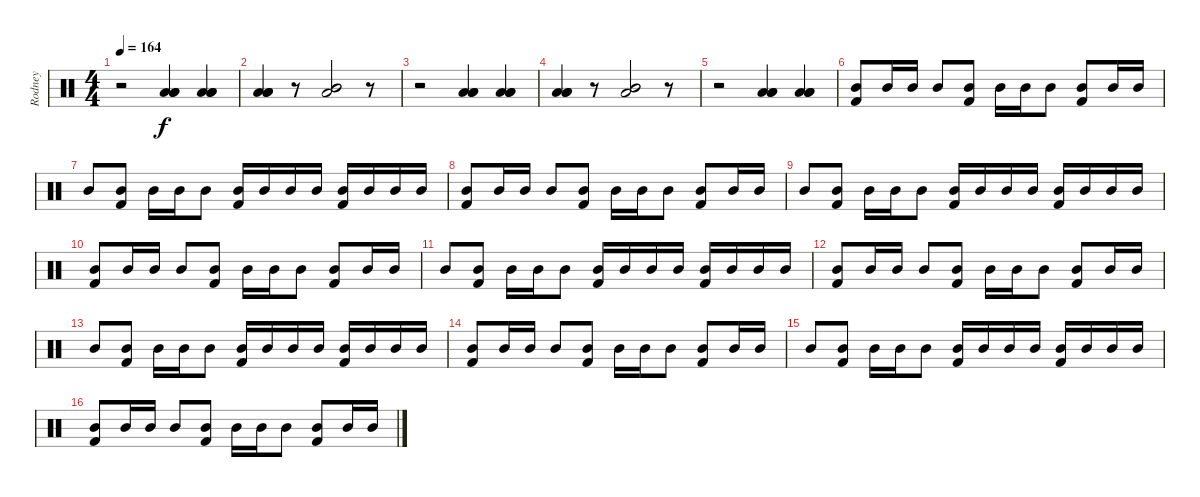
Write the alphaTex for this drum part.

\track ("Rodney" "Rodney") {instrument percussion}
\staff {score}
\articulation defaults
\ts (4 4)
\tempo 164
\clef neutral
\ks c
r.2{dy f} ("Low Tom (hit)" "Low Floor Tom (hit)" "Low Tom (hit)").4 ("Low Tom (hit)" "Low Floor Tom (hit)" "Low Tom (hit)").4 |
("Low Tom (hit)" "Low Floor Tom (hit)" "Low Tom (hit)").4 r.8 ("Mid Tom (hit)" "Low Tom (hit)" "Mid Tom (hit)").2 r.8 |
r.2 ("Low Tom (hit)" "Low Floor Tom (hit)" "Low Tom (hit)").4 ("Low Tom (hit)" "Low Floor Tom (hit)" "Low Tom (hit)").4 |
("Low Tom (hit)" "Low Floor Tom (hit)" "Low Tom (hit)").4 r.8 ("Mid Tom (hit)" "Low Tom (hit)" "Mid Tom (hit)").2 r.8 |
r.2 ("Low Tom (hit)" "Low Floor Tom (hit)" "Low Tom (hit)").4 ("Low Tom (hit)" "Low Floor Tom (hit)" "Low Tom (hit)").4 |
("Mid Tom (hit)" "Kick (hit) 2").8 "Mid Tom (hit)".16 "Mid Tom (hit)".16 "Mid Tom (hit)".8 ("Mid Tom (hit)" "Kick (hit) 2").8 "Mid Tom (hit)".16 "Mid Tom (hit)".16 "Mid Tom (hit)".8 ("Mid Tom (hit)" "Kick (hit) 2").8 "Mid Tom (hit)".16 "Mid Tom (hit)".16 |
"Mid Tom (hit)".8 ("Mid Tom (hit)" "Kick (hit) 2").8 "Mid Tom (hit)".16 "Mid Tom (hit)".16 "Mid Tom (hit)".8 ("Mid Tom (hit)" "Kick (hit) 2").16 "Mid Tom (hit)".16 "Mid Tom (hit)".16 "Mid Tom (hit)".16 ("Mid Tom (hit)" "Kick (hit) 2").16 "Mid Tom (hit)".16 "Mid Tom (hit)".16 "Mid Tom (hit)".16 |
("Mid Tom (hit)" "Kick (hit) 2").8 "Mid Tom (hit)".16 "Mid Tom (hit)".16 "Mid Tom (hit)".8 ("Mid Tom (hit)" "Kick (hit) 2").8 "Mid Tom (hit)".16 "Mid Tom (hit)".16 "Mid Tom (hit)".8 ("Mid Tom (hit)" "Kick (hit) 2").8 "Mid Tom (hit)".16 "Mid Tom (hit)".16 |
"Mid Tom (hit)".8 ("Mid Tom (hit)" "Kick (hit) 2").8 "Mid Tom (hit)".16 "Mid Tom (hit)".16 "Mid Tom (hit)".8 ("Mid Tom (hit)" "Kick (hit) 2").16 "Mid Tom (hit)".16 "Mid Tom (hit)".16 "Mid Tom (hit)".16 ("Mid Tom (hit)" "Kick (hit) 2").16 "Mid Tom (hit)".16 "Mid Tom (hit)".16 "Mid Tom (hit)".16 |
("Mid Tom (hit)" "Kick (hit) 2").8 "Mid Tom (hit)".16 "Mid Tom (hit)".16 "Mid Tom (hit)".8 ("Mid Tom (hit)" "Kick (hit) 2").8 "Mid Tom (hit)".16 "Mid Tom (hit)".16 "Mid Tom (hit)".8 ("Mid Tom (hit)" "Kick (hit) 2").8 "Mid Tom (hit)".16 "Mid Tom (hit)".16 |
"Mid Tom (hit)".8 ("Mid Tom (hit)" "Kick (hit) 2").8 "Mid Tom (hit)".16 "Mid Tom (hit)".16 "Mid Tom (hit)".8 ("Mid Tom (hit)" "Kick (hit) 2").16 "Mid Tom (hit)".16 "Mid Tom (hit)".16 "Mid Tom (hit)".16 ("Mid Tom (hit)" "Kick (hit) 2").16 "Mid Tom (hit)".16 "Mid Tom (hit)".16 "Mid Tom (hit)".16 |
("Mid Tom (hit)" "Kick (hit) 2").8 "Mid Tom (hit)".16 "Mid Tom (hit)".16 "Mid Tom (hit)".8 ("Mid Tom (hit)" "Kick (hit) 2").8 "Mid Tom (hit)".16 "Mid Tom (hit)".16 "Mid Tom (hit)".8 ("Mid Tom (hit)" "Kick (hit) 2").8 "Mid Tom (hit)".16 "Mid Tom (hit)".16 |
"Mid Tom (hit)".8 ("Mid Tom (hit)" "Kick (hit) 2").8 "Mid Tom (hit)".16 "Mid Tom (hit)".16 "Mid Tom (hit)".8 ("Mid Tom (hit)" "Kick (hit) 2").16 "Mid Tom (hit)".16 "Mid Tom (hit)".16 "Mid Tom (hit)".16 ("Mid Tom (hit)" "Kick (hit) 2").16 "Mid Tom (hit)".16 "Mid Tom (hit)".16 "Mid Tom (hit)".16 |
("Mid Tom (hit)" "Kick (hit) 2").8 "Mid Tom (hit)".16 "Mid Tom (hit)".16 "Mid Tom (hit)".8 ("Mid Tom (hit)" "Kick (hit) 2").8 "Mid Tom (hit)".16 "Mid Tom (hit)".16 "Mid Tom (hit)".8 ("Mid Tom (hit)" "Kick (hit) 2").8 "Mid Tom (hit)".16 "Mid Tom (hit)".16 |
"Mid Tom (hit)".8 ("Mid Tom (hit)" "Kick (hit) 2").8 "Mid Tom (hit)".16 "Mid Tom (hit)".16 "Mid Tom (hit)".8 ("Mid Tom (hit)" "Kick (hit) 2").16 "Mid Tom (hit)".16 "Mid Tom (hit)".16 "Mid Tom (hit)".16 ("Mid Tom (hit)" "Kick (hit) 2").16 "Mid Tom (hit)".16 "Mid Tom (hit)".16 "Mid Tom (hit)".16 |
("Mid Tom (hit)" "Kick (hit) 2").8 "Mid Tom (hit)".16 "Mid Tom (hit)".16 "Mid Tom (hit)".8 ("Mid Tom (hit)" "Kick (hit) 2").8 "Mid Tom (hit)".16 "Mid Tom (hit)".16 "Mid Tom (hit)".8 ("Mid Tom (hit)" "Kick (hit) 2").8 "Mid Tom (hit)".16 "Mid Tom (hit)".16
